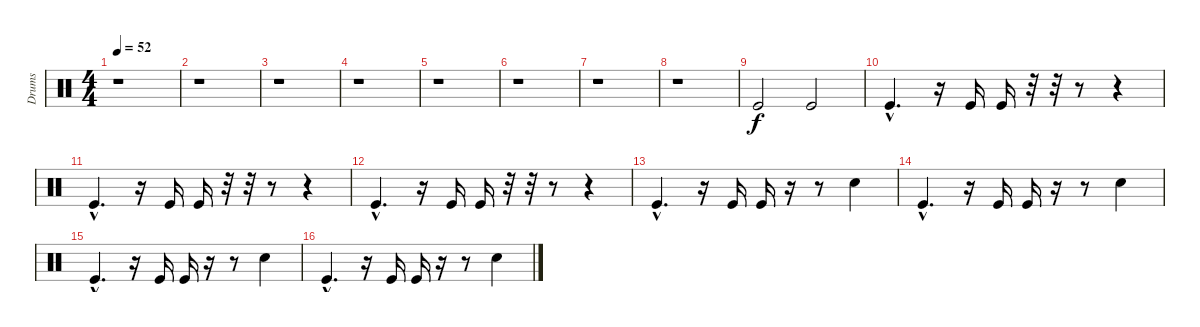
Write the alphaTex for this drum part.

\track ("Drums" "Drums") {instrument percussion}
\staff {score}
\articulation defaults
\ts (4 4)
\tempo 52
\clef neutral
\ks c
r.1{dy f} |
r.1 |
r.1 |
r.1 |
r.1 |
r.1 |
r.1 |
r.1 |
"Kick (hit)".2 "Kick (hit)".2 |
"Kick (hit)"{hac}.4{d} r.16 "Kick (hit)".16 "Kick (hit)".16 r.32 r.32 r.8 r.4 |
"Kick (hit)"{hac}.4{d} r.16 "Kick (hit)".16 "Kick (hit)".16 r.32 r.32 r.8 r.4 |
"Kick (hit)"{hac}.4{d} r.16 "Kick (hit)".16 "Kick (hit)".16 r.32 r.32 r.8 r.4 |
"Kick (hit)"{hac}.4{d} r.16 "Kick (hit)".16 "Kick (hit)".16 r.16 r.8 "Snare (hit) 2".4 |
"Kick (hit)"{hac}.4{d} r.16 "Kick (hit)".16 "Kick (hit)".16 r.16 r.8 "Snare (hit) 2".4 |
"Kick (hit)"{hac}.4{d} r.16 "Kick (hit)".16 "Kick (hit)".16 r.16 r.8 "Snare (hit) 2".4 |
"Kick (hit)"{hac}.4{d} r.16 "Kick (hit)".16 "Kick (hit)".16 r.16 r.8 "Snare (hit) 2".4
